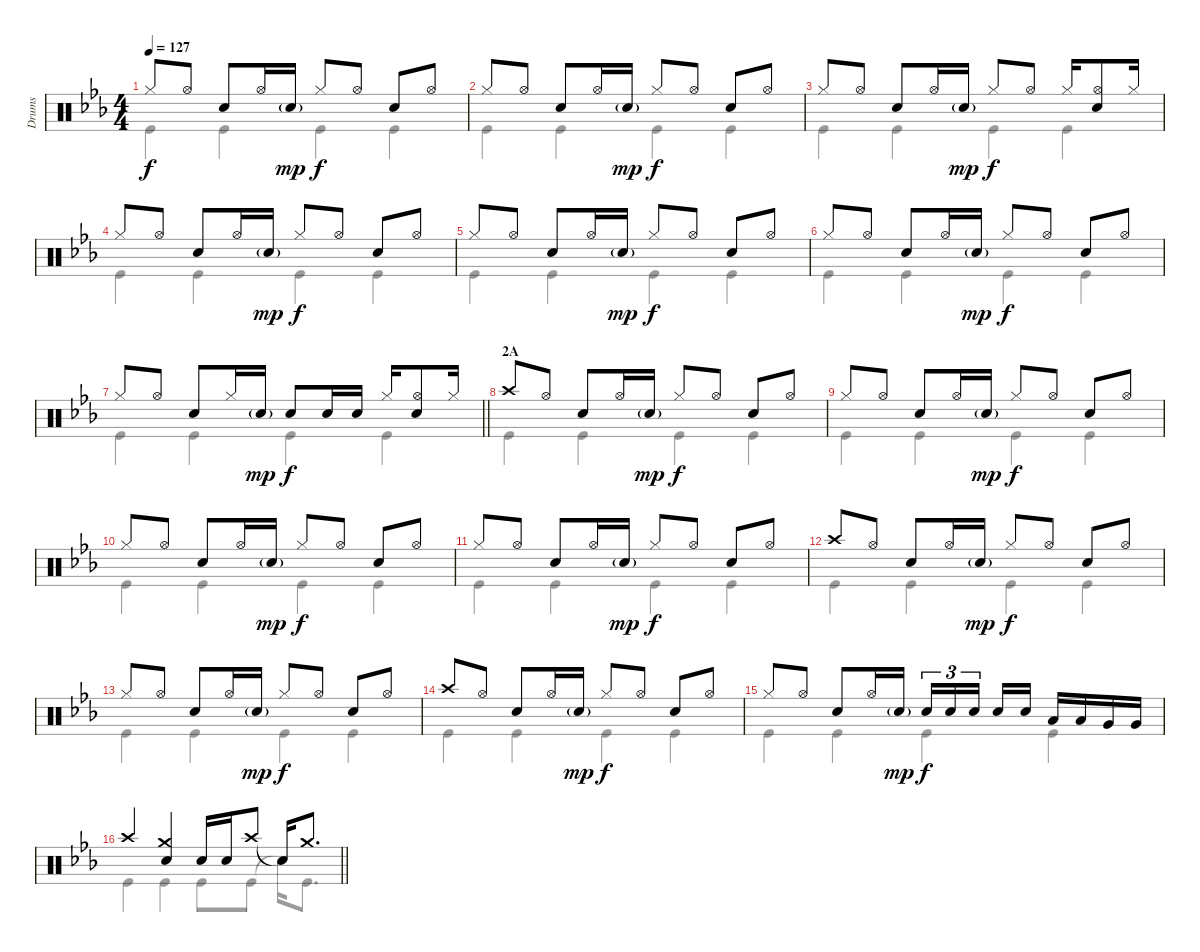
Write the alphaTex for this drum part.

\track ("Drums" "Drums") {instrument percussion}
\staff {score}
\articulation defaults
\voice
\ts (4 4)
\tempo 127
\clef neutral
\ks eb "Hi-Hat (closed)".8{dy f} "Hi-Hat (open)".8 "Snare (hit) 2".8 "Hi-Hat (open)".16 "Snare (hit) 2"{g}.16{dy mp} "Hi-Hat (closed)".8{dy f} "Hi-Hat (open)".8 "Snare (hit) 2".8 "Hi-Hat (open)".8
|
"Hi-Hat (closed)".8 "Hi-Hat (open)".8 "Snare (hit) 2".8 "Hi-Hat (open)".16 "Snare (hit) 2"{g}.16{dy mp} "Hi-Hat (closed)".8{dy f} "Hi-Hat (open)".8 "Snare (hit) 2".8 "Hi-Hat (open)".8 |
"Hi-Hat (closed)".8 "Hi-Hat (open)".8 "Snare (hit) 2".8 "Hi-Hat (open)".16 "Snare (hit) 2"{g}.16{dy mp} "Hi-Hat (closed)".8{dy f} "Hi-Hat (open)".8 "Hi-Hat (closed)".16 ("Hi-Hat (open)" "Snare (hit) 2").8 "Hi-Hat (closed)".16 |
"Hi-Hat (closed)".8 "Hi-Hat (open)".8 "Snare (hit) 2".8 "Hi-Hat (open)".16 "Snare (hit) 2"{g}.16{dy mp} "Hi-Hat (closed)".8{dy f} "Hi-Hat (open)".8 "Snare (hit) 2".8 "Hi-Hat (open)".8 |
"Hi-Hat (closed)".8 "Hi-Hat (open)".8 "Snare (hit) 2".8 "Hi-Hat (open)".16 "Snare (hit) 2"{g}.16{dy mp} "Hi-Hat (closed)".8{dy f} "Hi-Hat (open)".8 "Snare (hit) 2".8 "Hi-Hat (open)".8 |
"Hi-Hat (closed)".8 "Hi-Hat (open)".8 "Snare (hit) 2".8 "Hi-Hat (open)".16 "Snare (hit) 2"{g}.16{dy mp} "Hi-Hat (closed)".8{dy f} "Hi-Hat (open)".8 "Snare (hit) 2".8 "Hi-Hat (open)".8 |
\barLineRight lightlight "Hi-Hat (closed)".8 "Hi-Hat (open)".8 "Snare (hit) 2".8 "Hi-Hat (closed)".16 "Snare (hit) 2"{g}.16{dy mp} "Snare (hit) 2".8{dy f} "Snare (hit) 2".16 "Snare (hit) 2".16 "Hi-Hat (closed)".16
("Hi-Hat (open)" "Snare (hit) 2").8 "Hi-Hat (closed)".16 |
\section ("" "2A")
"Crash high (hit)".8 "Hi-Hat (open)".8 "Snare (hit) 2".8 "Hi-Hat (open)".16 "Snare (hit) 2"{g}.16{dy mp} "Hi-Hat (closed)".8{dy f} "Hi-Hat (open)".8 "Snare (hit) 2".8 "Hi-Hat (open)".8 |
"Hi-Hat (closed)".8 "Hi-Hat (open)".8 "Snare (hit) 2".8 "Hi-Hat (open)".16 "Snare (hit) 2"{g}.16{dy mp} "Hi-Hat (closed)".8{dy f} "Hi-Hat (open)".8 "Snare (hit) 2".8 "Hi-Hat (open)".8 |
"Hi-Hat (closed)".8 "Hi-Hat (open)".8 "Snare (hit) 2".8 "Hi-Hat (open)".16 "Snare (hit) 2"{g}.16{dy mp} "Hi-Hat (closed)".8{dy f} "Hi-Hat (open)".8 "Snare (hit) 2".8 "Hi-Hat (open)".8 |
"Hi-Hat (closed)".8 "Hi-Hat (open)".8 "Snare (hit) 2".8 "Hi-Hat (open)".16 "Snare (hit) 2"{g}.16{dy mp} "Hi-Hat (closed)".8{dy f} "Hi-Hat (open)".8 "Snare (hit) 2".8 "Hi-Hat (open)".8 |
"Crash high (hit)".8 "Hi-Hat (open)".8 "Snare (hit) 2".8 "Hi-Hat (open)".16 "Snare (hit) 2"{g}.16{dy mp} "Hi-Hat (closed)".8{dy f} "Hi-Hat (open)".8 "Snare (hit) 2".8 "Hi-Hat (open)".8 |
"Hi-Hat (closed)".8 "Hi-Hat (open)".8 "Snare (hit) 2".8 "Hi-Hat (open)".16 "Snare (hit) 2"{g}.16{dy mp} "Hi-Hat (closed)".8{dy f} "Hi-Hat (open)".8 "Snare (hit) 2".8 "Hi-Hat (open)".8 |
"Crash high (hit)".8 "Hi-Hat (open)".8 "Snare (hit) 2".8 "Hi-Hat (open)".16 "Snare (hit) 2"{g}.16{dy mp} "Hi-Hat (closed)".8{dy f} "Hi-Hat (open)".8 "Snare (hit) 2".8 "Hi-Hat (open)".8 |
"Hi-Hat (closed)".8 "Hi-Hat (open)".8 "Snare (hit) 2".8 "Hi-Hat (open)".16 "Snare (hit) 2"{g}.16{dy mp} "Snare (hit) 2".16{tu (3 2) dy f} "Snare (hit) 2".16{tu (3 2)} "Snare (hit) 2".16{tu (3 2) beam splitsecondary} "Snare (hit) 2".16 "Snare (hit) 2".16 "Low Tom (hit)".16 "Low Tom (hit)".16 "Very Low Tom (hit)".16 "Very Low Tom (hit)".16 |
\barLineRight lightlight "Crash high (hit)".4
("Crash medium (hit)" "Snare (hit) 2").4 "Snare (hit) 2".16 "Snare (hit) 2".16 "Crash high (hit)".8 "Snare (hit)"{t}.16 "Crash medium (hit)".8{d}
\voice
\clef neutral
\ottava regular
\simile none
\ks eb "Kick (hit)".4{dy f} "Kick (hit)".4 "Kick (hit)".4 "Kick (hit)".4
|
"Kick (hit)".4 "Kick (hit)".4 "Kick (hit)".4 "Kick (hit)".4 |
"Kick (hit)".4 "Kick (hit)".4 "Kick (hit)".4 "Kick (hit)".4 |
"Kick (hit)".4 "Kick (hit)".4 "Kick (hit)".4 "Kick (hit)".4 |
"Kick (hit)".4 "Kick (hit)".4 "Kick (hit)".4 "Kick (hit)".4 |
"Kick (hit)".4 "Kick (hit)".4 "Kick (hit)".4 "Kick (hit)".4 |
\barLineRight lightlight "Kick (hit)".4 "Kick (hit)".4 "Kick (hit)".4 "Kick (hit)".4
|
"Kick (hit)".4 "Kick (hit)".4 "Kick (hit)".4 "Kick (hit)".4 |
"Kick (hit)".4 "Kick (hit)".4 "Kick (hit)".4 "Kick (hit)".4 |
"Kick (hit)".4 "Kick (hit)".4 "Kick (hit)".4 "Kick (hit)".4 |
"Kick (hit)".4 "Kick (hit)".4 "Kick (hit)".4 "Kick (hit)".4 |
"Kick (hit)".4 "Kick (hit)".4 "Kick (hit)".4 "Kick (hit)".4 |
"Kick (hit)".4 "Kick (hit)".4 "Kick (hit)".4 "Kick (hit)".4 |
"Kick (hit)".4 "Kick (hit)".4 "Kick (hit)".4 "Kick (hit)".4 |
"Kick (hit)".4 "Kick (hit)".4 "Kick (hit)".4 "Kick (hit)".4 |
\barLineRight lightlight "Kick (hit)".4 "Kick (hit)".4 "Kick (hit)".8 "Kick (hit)".8 "Snare (hit)"{t}.16 "Kick (hit)".8{d}
